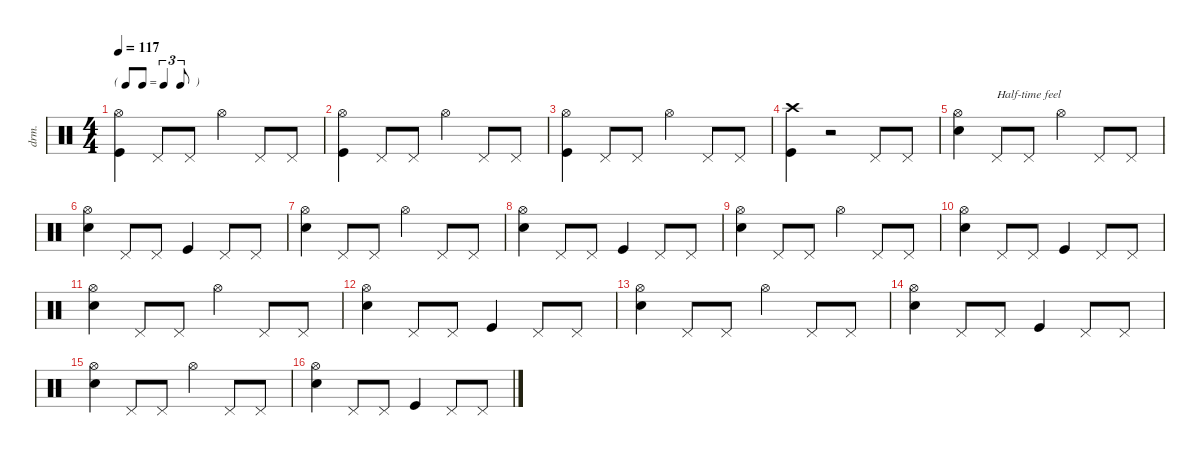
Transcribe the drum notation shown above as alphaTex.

\defaultSystemsLayout 4
\hideDynamics
\bracketExtendMode nobrackets
\otherSystemsTrackNameOrientation horizontal
\track ("Percussions" "drm.") {instrument percussion}
\staff {score}
\articulation defaults
\ts (4 4)
\tf triplet8th
\tempo 117
\clef neutral
\ks c
("Hi-Hat (open)" "Kick (hit)").4{dy f} "Pedal Hi-Hat (hit)".8 "Pedal Hi-Hat (hit)".8 "Hi-Hat (open)".4 "Pedal Hi-Hat (hit)".8 "Pedal Hi-Hat (hit)".8 |
("Hi-Hat (open)" "Kick (hit)").4 "Pedal Hi-Hat (hit)".8 "Pedal Hi-Hat (hit)".8 "Hi-Hat (open)".4 "Pedal Hi-Hat (hit)".8 "Pedal Hi-Hat (hit)".8 |
("Hi-Hat (open)" "Kick (hit)").4 "Pedal Hi-Hat (hit)".8 "Pedal Hi-Hat (hit)".8 "Hi-Hat (open)".4 "Pedal Hi-Hat (hit)".8 "Pedal Hi-Hat (hit)".8 |
("Crash high (hit)" "Kick (hit)").4 r.2 "Pedal Hi-Hat (hit)".8 "Pedal Hi-Hat (hit)".8 |
("Hi-Hat (open)" "Snare (hit) 2").4 "Pedal Hi-Hat (hit)".8{txt "Half-time feel"} "Pedal Hi-Hat (hit)".8 "Hi-Hat (open)".4 "Pedal Hi-Hat (hit)".8 "Pedal Hi-Hat (hit)".8 |
("Hi-Hat (open)" "Snare (hit) 2").4 "Pedal Hi-Hat (hit)".8 "Pedal Hi-Hat (hit)".8 "Kick (hit)".4 "Pedal Hi-Hat (hit)".8 "Pedal Hi-Hat (hit)".8 |
("Hi-Hat (open)" "Snare (hit) 2").4 "Pedal Hi-Hat (hit)".8 "Pedal Hi-Hat (hit)".8 "Hi-Hat (open)".4 "Pedal Hi-Hat (hit)".8 "Pedal Hi-Hat (hit)".8 |
("Hi-Hat (open)" "Snare (hit) 2").4 "Pedal Hi-Hat (hit)".8 "Pedal Hi-Hat (hit)".8 "Kick (hit)".4 "Pedal Hi-Hat (hit)".8 "Pedal Hi-Hat (hit)".8 |
("Hi-Hat (open)" "Snare (hit) 2").4 "Pedal Hi-Hat (hit)".8 "Pedal Hi-Hat (hit)".8 "Hi-Hat (open)".4 "Pedal Hi-Hat (hit)".8 "Pedal Hi-Hat (hit)".8 |
("Hi-Hat (open)" "Snare (hit) 2").4 "Pedal Hi-Hat (hit)".8 "Pedal Hi-Hat (hit)".8 "Kick (hit)".4 "Pedal Hi-Hat (hit)".8 "Pedal Hi-Hat (hit)".8 |
("Hi-Hat (open)" "Snare (hit) 2").4 "Pedal Hi-Hat (hit)".8 "Pedal Hi-Hat (hit)".8 "Hi-Hat (open)".4 "Pedal Hi-Hat (hit)".8 "Pedal Hi-Hat (hit)".8 |
("Hi-Hat (open)" "Snare (hit) 2").4 "Pedal Hi-Hat (hit)".8 "Pedal Hi-Hat (hit)".8 "Kick (hit)".4 "Pedal Hi-Hat (hit)".8 "Pedal Hi-Hat (hit)".8 |
("Hi-Hat (open)" "Snare (hit) 2").4 "Pedal Hi-Hat (hit)".8 "Pedal Hi-Hat (hit)".8 "Hi-Hat (open)".4 "Pedal Hi-Hat (hit)".8 "Pedal Hi-Hat (hit)".8 |
("Hi-Hat (open)" "Snare (hit) 2").4 "Pedal Hi-Hat (hit)".8 "Pedal Hi-Hat (hit)".8 "Kick (hit)".4 "Pedal Hi-Hat (hit)".8 "Pedal Hi-Hat (hit)".8 |
("Hi-Hat (open)" "Snare (hit) 2").4 "Pedal Hi-Hat (hit)".8 "Pedal Hi-Hat (hit)".8 "Hi-Hat (open)".4 "Pedal Hi-Hat (hit)".8 "Pedal Hi-Hat (hit)".8 |
("Hi-Hat (open)" "Snare (hit) 2").4 "Pedal Hi-Hat (hit)".8 "Pedal Hi-Hat (hit)".8 "Kick (hit)".4 "Pedal Hi-Hat (hit)".8 "Pedal Hi-Hat (hit)".8
